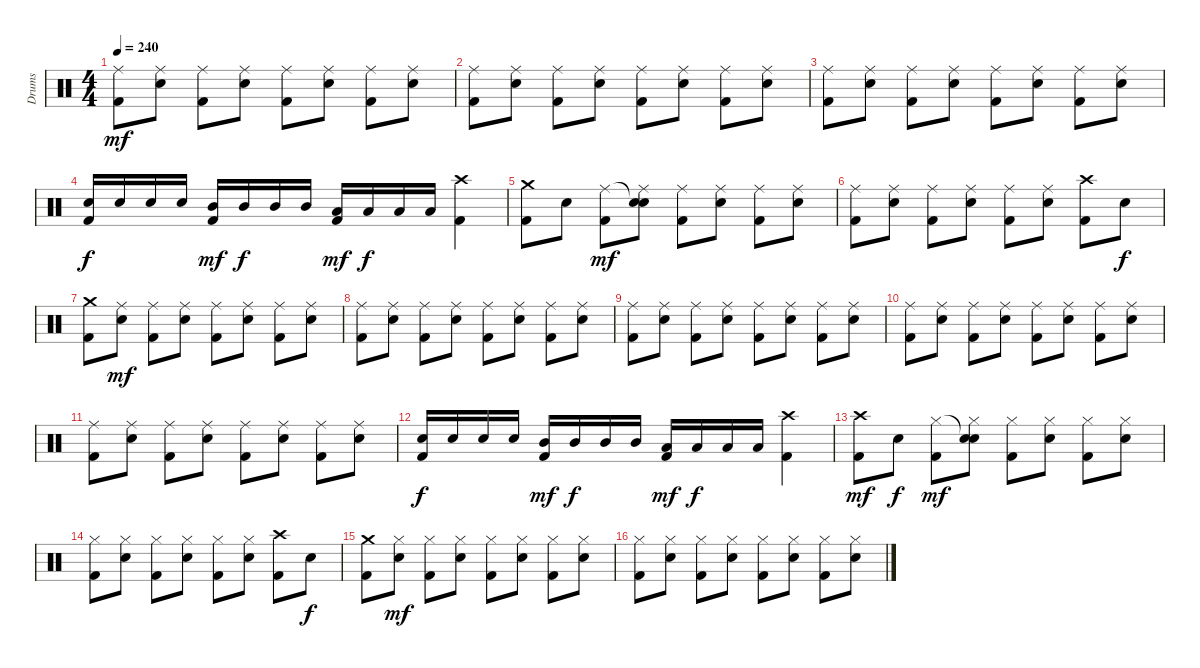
\track ("Drums" "Drums") {instrument percussion}
\staff {score}
\articulation defaults
\ts (4 4)
\tempo 240
\clef neutral
\ks c
("Ride (middle)" "Kick (hit) 2").8{dy mf} ("Ride (middle)" "Electric Snare (hit)").8 ("Ride (middle)" "Kick (hit) 2").8 ("Ride (middle)" "Electric Snare (hit)").8 ("Ride (middle)" "Kick (hit) 2").8 ("Ride (middle)" "Electric Snare (hit)").8 ("Ride (middle)" "Kick (hit) 2").8 ("Ride (middle)" "Electric Snare (hit)").8 |
("Ride (middle)" "Kick (hit) 2").8 ("Ride (middle)" "Electric Snare (hit)").8 ("Ride (middle)" "Kick (hit) 2").8 ("Ride (middle)" "Electric Snare (hit)").8 ("Ride (middle)" "Kick (hit) 2").8 ("Ride (middle)" "Electric Snare (hit)").8 ("Ride (middle)" "Kick (hit) 2").8 ("Ride (middle)" "Electric Snare (hit)").8 |
("Ride (middle)" "Kick (hit) 2").8 ("Ride (middle)" "Electric Snare (hit)").8 ("Ride (middle)" "Kick (hit) 2").8 ("Ride (middle)" "Electric Snare (hit)").8 ("Ride (middle)" "Kick (hit) 2").8 ("Ride (middle)" "Electric Snare (hit)").8 ("Ride (middle)" "Kick (hit) 2").8 ("Ride (middle)" "Electric Snare (hit)").8 |
("Electric Snare (hit)" "Kick (hit) 2").16{dy f} "Electric Snare (hit)".16 "Electric Snare (hit)".16 "Electric Snare (hit)".16 ("Mid Tom (hit)" "Kick (hit) 2").16{dy mf} "Mid Tom (hit)".16{dy f} "Mid Tom (hit)".16 "Mid Tom (hit)".16 ("Low Tom (hit)" "Kick (hit) 2").16{dy mf} "Low Tom (hit)".16{dy f} "Low Tom (hit)".16 "Low Tom (hit)".16 ("Crash high (hit)" "Kick (hit) 2").4 |
("Crash medium (hit)" "Kick (hit) 2").8 "Electric Snare (hit)".8 ("Ride (middle)" "Kick (hit) 2").8{dy mf} ("Snare (hit)"{t} "Ride (middle)" "Electric Snare (hit)").8 ("Ride (middle)" "Kick (hit) 2").8 ("Ride (middle)" "Electric Snare (hit)").8 ("Ride (middle)" "Kick (hit) 2").8 ("Ride (middle)" "Electric Snare (hit)").8 |
("Ride (middle)" "Kick (hit) 2").8 ("Ride (middle)" "Electric Snare (hit)").8 ("Ride (middle)" "Kick (hit) 2").8 ("Ride (middle)" "Electric Snare (hit)").8 ("Ride (middle)" "Kick (hit) 2").8 ("Ride (middle)" "Electric Snare (hit)").8 ("Crash high (hit)" "Kick (hit) 2").8 "Electric Snare (hit)".8{dy f} |
("Crash medium (hit)" "Kick (hit) 2").8 ("Ride (middle)" "Electric Snare (hit)").8{dy mf} ("Ride (middle)" "Kick (hit) 2").8 ("Ride (middle)" "Electric Snare (hit)").8 ("Ride (middle)" "Kick (hit) 2").8 ("Ride (middle)" "Electric Snare (hit)").8 ("Ride (middle)" "Kick (hit) 2").8 ("Ride (middle)" "Electric Snare (hit)").8 |
("Ride (middle)" "Kick (hit) 2").8 ("Ride (middle)" "Electric Snare (hit)").8 ("Ride (middle)" "Kick (hit) 2").8 ("Ride (middle)" "Electric Snare (hit)").8 ("Ride (middle)" "Kick (hit) 2").8 ("Ride (middle)" "Electric Snare (hit)").8 ("Ride (middle)" "Kick (hit) 2").8 ("Ride (middle)" "Electric Snare (hit)").8 |
("Ride (middle)" "Kick (hit) 2").8 ("Ride (middle)" "Electric Snare (hit)").8 ("Ride (middle)" "Kick (hit) 2").8 ("Ride (middle)" "Electric Snare (hit)").8 ("Ride (middle)" "Kick (hit) 2").8 ("Ride (middle)" "Electric Snare (hit)").8 ("Ride (middle)" "Kick (hit) 2").8 ("Ride (middle)" "Electric Snare (hit)").8 |
("Ride (middle)" "Kick (hit) 2").8 ("Ride (middle)" "Electric Snare (hit)").8 ("Ride (middle)" "Kick (hit) 2").8 ("Ride (middle)" "Electric Snare (hit)").8 ("Ride (middle)" "Kick (hit) 2").8 ("Ride (middle)" "Electric Snare (hit)").8 ("Ride (middle)" "Kick (hit) 2").8 ("Ride (middle)" "Electric Snare (hit)").8 |
("Ride (middle)" "Kick (hit) 2").8 ("Ride (middle)" "Electric Snare (hit)").8 ("Ride (middle)" "Kick (hit) 2").8 ("Ride (middle)" "Electric Snare (hit)").8 ("Ride (middle)" "Kick (hit) 2").8 ("Ride (middle)" "Electric Snare (hit)").8 ("Ride (middle)" "Kick (hit) 2").8 ("Ride (middle)" "Electric Snare (hit)").8 |
("Electric Snare (hit)" "Kick (hit) 2").16{dy f} "Electric Snare (hit)".16 "Electric Snare (hit)".16 "Electric Snare (hit)".16 ("Mid Tom (hit)" "Kick (hit) 2").16{dy mf} "Mid Tom (hit)".16{dy f} "Mid Tom (hit)".16 "Mid Tom (hit)".16 ("Low Tom (hit)" "Kick (hit) 2").16{dy mf} "Low Tom (hit)".16{dy f} "Low Tom (hit)".16 "Low Tom (hit)".16 ("Crash high (hit)" "Kick (hit) 2").4 |
("Crash high (hit)" "Kick (hit) 2").8{dy mf} "Electric Snare (hit)".8{dy f} ("Hi-Hat (closed)" "Kick (hit) 2").8{dy mf} ("Snare (hit)"{t} "Hi-Hat (closed)" "Electric Snare (hit)").8 ("Hi-Hat (closed)" "Kick (hit) 2").8 ("Hi-Hat (closed)" "Electric Snare (hit)").8 ("Hi-Hat (closed)" "Kick (hit) 2").8 ("Hi-Hat (closed)" "Electric Snare (hit)").8 |
("Hi-Hat (closed)" "Kick (hit) 2").8 ("Hi-Hat (closed)" "Electric Snare (hit)").8 ("Hi-Hat (closed)" "Kick (hit) 2").8 ("Hi-Hat (closed)" "Electric Snare (hit)").8 ("Hi-Hat (closed)" "Kick (hit) 2").8 ("Hi-Hat (closed)" "Electric Snare (hit)").8 ("Crash high (hit)" "Kick (hit) 2").8 "Electric Snare (hit)".8{dy f} |
("Crash medium (hit)" "Kick (hit) 2").8 ("Hi-Hat (closed)" "Electric Snare (hit)").8{dy mf} ("Hi-Hat (closed)" "Kick (hit) 2").8 ("Hi-Hat (closed)" "Electric Snare (hit)").8 ("Hi-Hat (closed)" "Kick (hit) 2").8 ("Hi-Hat (closed)" "Electric Snare (hit)").8 ("Hi-Hat (closed)" "Kick (hit) 2").8 ("Hi-Hat (closed)" "Electric Snare (hit)").8 |
("Hi-Hat (closed)" "Kick (hit) 2").8 ("Hi-Hat (closed)" "Electric Snare (hit)").8 ("Hi-Hat (closed)" "Kick (hit) 2").8 ("Hi-Hat (closed)" "Electric Snare (hit)").8 ("Hi-Hat (closed)" "Kick (hit) 2").8 ("Hi-Hat (closed)" "Electric Snare (hit)").8 ("Hi-Hat (closed)" "Kick (hit) 2").8 ("Hi-Hat (closed)" "Electric Snare (hit)").8
